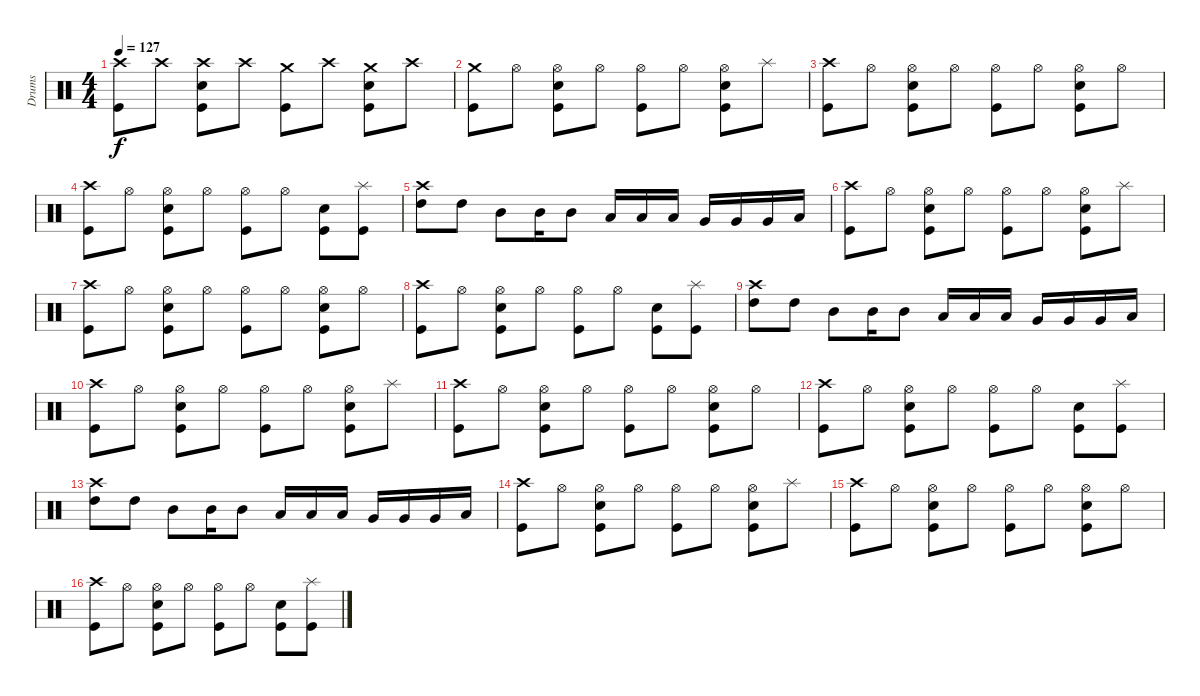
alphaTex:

\track ("Drums" "Drums") {instrument percussion}
\staff {score}
\articulation defaults
\ts (4 4)
\tempo 127
\clef neutral
\ks c
("Crash high (hit)" "Kick (hit)").8{dy f} "Crash high (hit)".8 ("Crash high (hit)" "Electric Snare (hit)" "Kick (hit)").8 "Crash high (hit)".8 ("Crash medium (hit)" "Kick (hit)").8 "Crash high (hit)".8 ("Crash medium (hit)" "Electric Snare (hit)" "Kick (hit)").8 "Crash high (hit)".8 |
("Crash medium (hit)" "Kick (hit)").8 "Hi-Hat (open)".8 ("Hi-Hat (open)" "Electric Snare (hit)" "Kick (hit)").8 "Hi-Hat (open)".8 ("Hi-Hat (open)" "Kick (hit)").8 "Hi-Hat (open)".8 ("Hi-Hat (open)" "Electric Snare (hit)" "Kick (hit)").8 "Splash (hit)".8 |
("Crash high (hit)" "Kick (hit)").8 "Hi-Hat (open)".8 ("Hi-Hat (open)" "Electric Snare (hit)" "Kick (hit)").8 "Hi-Hat (open)".8 ("Hi-Hat (open)" "Kick (hit)").8 "Hi-Hat (open)".8 ("Hi-Hat (open)" "Electric Snare (hit)" "Kick (hit)").8 "Hi-Hat (open)".8 |
("Crash high (hit)" "Kick (hit)").8 "Hi-Hat (open)".8 ("Hi-Hat (open)" "Electric Snare (hit)" "Kick (hit)").8 "Hi-Hat (open)".8 ("Hi-Hat (open)" "Kick (hit)").8 "Hi-Hat (open)".8 ("Electric Snare (hit)" "Kick (hit)").8 ("Splash (hit)" "Kick (hit)").8 |
("Crash high (hit)" "High Tom (hit)").8 "High Tom (hit)".8 "Mid Tom (hit)".8 "Mid Tom (hit)".16 "Mid Tom (hit)".8 "Low Tom (hit)".16 "Low Tom (hit)".16 "Low Tom (hit)".16 "Very Low Tom (hit)".16 "Very Low Tom (hit)".16 "Very Low Tom (hit)".16 "Low Floor Tom (hit)".16 |
("Crash high (hit)" "Kick (hit)").8 "Hi-Hat (open)".8 ("Hi-Hat (open)" "Electric Snare (hit)" "Kick (hit)").8 "Hi-Hat (open)".8 ("Hi-Hat (open)" "Kick (hit)").8 "Hi-Hat (open)".8 ("Hi-Hat (open)" "Electric Snare (hit)" "Kick (hit)").8 "Splash (hit)".8 |
("Crash high (hit)" "Kick (hit)").8 "Hi-Hat (open)".8 ("Hi-Hat (open)" "Electric Snare (hit)" "Kick (hit)").8 "Hi-Hat (open)".8 ("Hi-Hat (open)" "Kick (hit)").8 "Hi-Hat (open)".8 ("Hi-Hat (open)" "Electric Snare (hit)" "Kick (hit)").8 "Hi-Hat (open)".8 |
("Crash high (hit)" "Kick (hit)").8 "Hi-Hat (open)".8 ("Hi-Hat (open)" "Electric Snare (hit)" "Kick (hit)").8 "Hi-Hat (open)".8 ("Hi-Hat (open)" "Kick (hit)").8 "Hi-Hat (open)".8 ("Electric Snare (hit)" "Kick (hit)").8 ("Splash (hit)" "Kick (hit)").8 |
("Crash high (hit)" "High Tom (hit)").8 "High Tom (hit)".8 "Mid Tom (hit)".8 "Mid Tom (hit)".16 "Mid Tom (hit)".8 "Low Tom (hit)".16 "Low Tom (hit)".16 "Low Tom (hit)".16 "Very Low Tom (hit)".16 "Very Low Tom (hit)".16 "Very Low Tom (hit)".16 "Low Floor Tom (hit)".16 |
("Crash high (hit)" "Kick (hit)").8 "Hi-Hat (open)".8 ("Hi-Hat (open)" "Electric Snare (hit)" "Kick (hit)").8 "Hi-Hat (open)".8 ("Hi-Hat (open)" "Kick (hit)").8 "Hi-Hat (open)".8 ("Hi-Hat (open)" "Electric Snare (hit)" "Kick (hit)").8 "Splash (hit)".8 |
("Crash high (hit)" "Kick (hit)").8 "Hi-Hat (open)".8 ("Hi-Hat (open)" "Electric Snare (hit)" "Kick (hit)").8 "Hi-Hat (open)".8 ("Hi-Hat (open)" "Kick (hit)").8 "Hi-Hat (open)".8 ("Hi-Hat (open)" "Electric Snare (hit)" "Kick (hit)").8 "Hi-Hat (open)".8 |
("Crash high (hit)" "Kick (hit)").8 "Hi-Hat (open)".8 ("Hi-Hat (open)" "Electric Snare (hit)" "Kick (hit)").8 "Hi-Hat (open)".8 ("Hi-Hat (open)" "Kick (hit)").8 "Hi-Hat (open)".8 ("Electric Snare (hit)" "Kick (hit)").8 ("Splash (hit)" "Kick (hit)").8 |
("Crash high (hit)" "High Tom (hit)").8 "High Tom (hit)".8 "Mid Tom (hit)".8 "Mid Tom (hit)".16 "Mid Tom (hit)".8 "Low Tom (hit)".16 "Low Tom (hit)".16 "Low Tom (hit)".16 "Very Low Tom (hit)".16 "Very Low Tom (hit)".16 "Very Low Tom (hit)".16 "Low Floor Tom (hit)".16 |
("Crash high (hit)" "Kick (hit)").8 "Hi-Hat (open)".8 ("Hi-Hat (open)" "Electric Snare (hit)" "Kick (hit)").8 "Hi-Hat (open)".8 ("Hi-Hat (open)" "Kick (hit)").8 "Hi-Hat (open)".8 ("Hi-Hat (open)" "Electric Snare (hit)" "Kick (hit)").8 "Splash (hit)".8 |
("Crash high (hit)" "Kick (hit)").8 "Hi-Hat (open)".8 ("Hi-Hat (open)" "Electric Snare (hit)" "Kick (hit)").8 "Hi-Hat (open)".8 ("Hi-Hat (open)" "Kick (hit)").8 "Hi-Hat (open)".8 ("Hi-Hat (open)" "Electric Snare (hit)" "Kick (hit)").8 "Hi-Hat (open)".8 |
("Crash high (hit)" "Kick (hit)").8 "Hi-Hat (open)".8 ("Hi-Hat (open)" "Electric Snare (hit)" "Kick (hit)").8 "Hi-Hat (open)".8 ("Hi-Hat (open)" "Kick (hit)").8 "Hi-Hat (open)".8 ("Electric Snare (hit)" "Kick (hit)").8 ("Splash (hit)" "Kick (hit)").8
